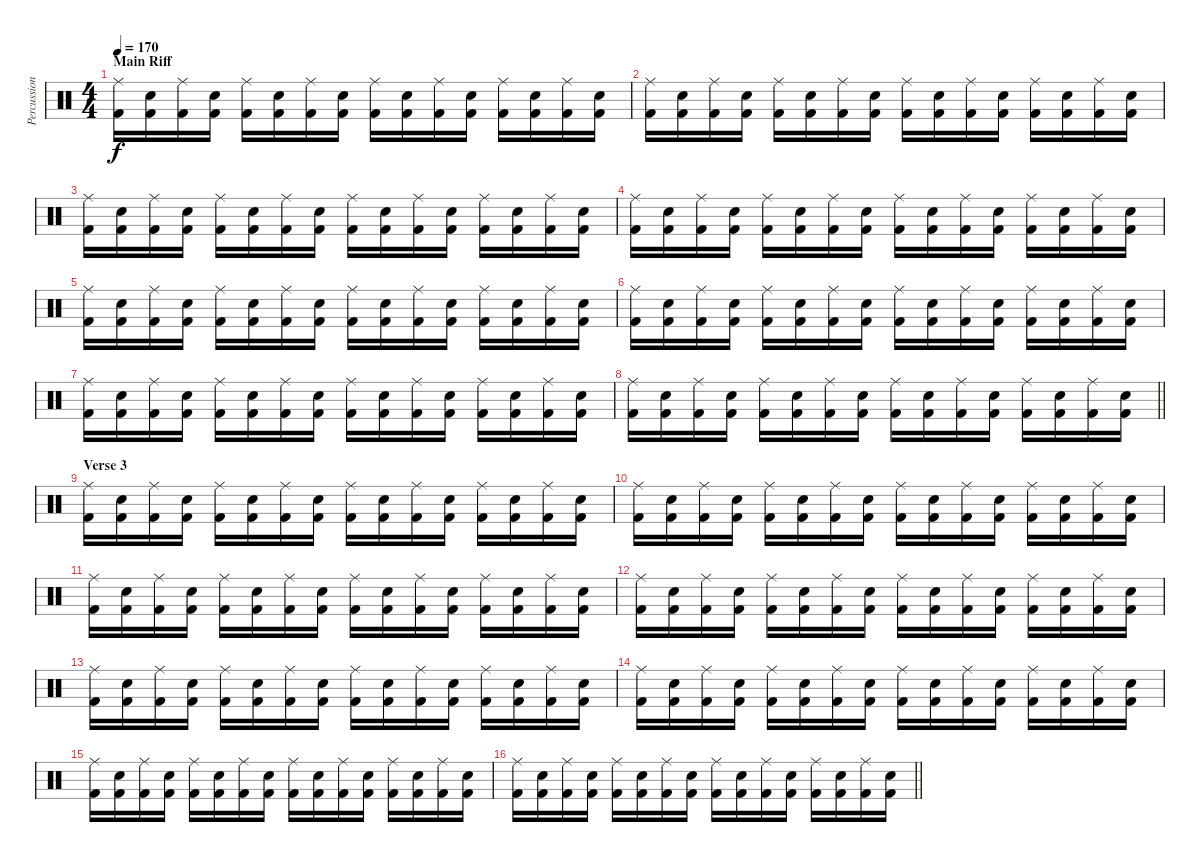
\track ("Percussion" "Percussion") {instrument percussion}
\staff {score}
\articulation defaults
\ts (4 4)
\section ("" "Main Riff")
\tempo 170
\clef neutral
\ks c
("Ride (middle)" "Kick (hit) 2").16{dy f} ("Electric Snare (hit)" "Kick (hit) 2").16 ("Ride (middle)" "Kick (hit) 2").16 ("Electric Snare (hit)" "Kick (hit) 2").16 ("Ride (middle)" "Kick (hit) 2").16 ("Electric Snare (hit)" "Kick (hit) 2").16 ("Ride (middle)" "Kick (hit) 2").16 ("Electric Snare (hit)" "Kick (hit) 2").16 ("Ride (middle)" "Kick (hit) 2").16 ("Electric Snare (hit)" "Kick (hit) 2").16 ("Ride (middle)" "Kick (hit) 2").16 ("Electric Snare (hit)" "Kick (hit) 2").16 ("Ride (middle)" "Kick (hit) 2").16 ("Electric Snare (hit)" "Kick (hit) 2").16 ("Ride (middle)" "Kick (hit) 2").16 ("Electric Snare (hit)" "Kick (hit) 2").16 |
("Ride (middle)" "Kick (hit) 2").16 ("Electric Snare (hit)" "Kick (hit) 2").16 ("Ride (middle)" "Kick (hit) 2").16 ("Electric Snare (hit)" "Kick (hit) 2").16 ("Ride (middle)" "Kick (hit) 2").16 ("Electric Snare (hit)" "Kick (hit) 2").16 ("Ride (middle)" "Kick (hit) 2").16 ("Electric Snare (hit)" "Kick (hit) 2").16 ("Ride (middle)" "Kick (hit) 2").16 ("Electric Snare (hit)" "Kick (hit) 2").16 ("Ride (middle)" "Kick (hit) 2").16 ("Electric Snare (hit)" "Kick (hit) 2").16 ("Ride (middle)" "Kick (hit) 2").16 ("Electric Snare (hit)" "Kick (hit) 2").16 ("Ride (middle)" "Kick (hit) 2").16 ("Electric Snare (hit)" "Kick (hit) 2").16 |
("Ride (middle)" "Kick (hit) 2").16 ("Electric Snare (hit)" "Kick (hit) 2").16 ("Ride (middle)" "Kick (hit) 2").16 ("Electric Snare (hit)" "Kick (hit) 2").16 ("Ride (middle)" "Kick (hit) 2").16 ("Electric Snare (hit)" "Kick (hit) 2").16 ("Ride (middle)" "Kick (hit) 2").16 ("Electric Snare (hit)" "Kick (hit) 2").16 ("Ride (middle)" "Kick (hit) 2").16 ("Electric Snare (hit)" "Kick (hit) 2").16 ("Ride (middle)" "Kick (hit) 2").16 ("Electric Snare (hit)" "Kick (hit) 2").16 ("Ride (middle)" "Kick (hit) 2").16 ("Electric Snare (hit)" "Kick (hit) 2").16 ("Ride (middle)" "Kick (hit) 2").16 ("Electric Snare (hit)" "Kick (hit) 2").16 |
("Ride (middle)" "Kick (hit) 2").16 ("Electric Snare (hit)" "Kick (hit) 2").16 ("Ride (middle)" "Kick (hit) 2").16 ("Electric Snare (hit)" "Kick (hit) 2").16 ("Ride (middle)" "Kick (hit) 2").16 ("Electric Snare (hit)" "Kick (hit) 2").16 ("Ride (middle)" "Kick (hit) 2").16 ("Electric Snare (hit)" "Kick (hit) 2").16 ("Ride (middle)" "Kick (hit) 2").16 ("Electric Snare (hit)" "Kick (hit) 2").16 ("Ride (middle)" "Kick (hit) 2").16 ("Electric Snare (hit)" "Kick (hit) 2").16 ("Ride (middle)" "Kick (hit) 2").16 ("Electric Snare (hit)" "Kick (hit) 2").16 ("Ride (middle)" "Kick (hit) 2").16 ("Electric Snare (hit)" "Kick (hit) 2").16 |
("Ride (middle)" "Kick (hit) 2").16 ("Electric Snare (hit)" "Kick (hit) 2").16 ("Ride (middle)" "Kick (hit) 2").16 ("Electric Snare (hit)" "Kick (hit) 2").16 ("Ride (middle)" "Kick (hit) 2").16 ("Electric Snare (hit)" "Kick (hit) 2").16 ("Ride (middle)" "Kick (hit) 2").16 ("Electric Snare (hit)" "Kick (hit) 2").16 ("Ride (middle)" "Kick (hit) 2").16 ("Electric Snare (hit)" "Kick (hit) 2").16 ("Ride (middle)" "Kick (hit) 2").16 ("Electric Snare (hit)" "Kick (hit) 2").16 ("Ride (middle)" "Kick (hit) 2").16 ("Electric Snare (hit)" "Kick (hit) 2").16 ("Ride (middle)" "Kick (hit) 2").16 ("Electric Snare (hit)" "Kick (hit) 2").16 |
("Ride (middle)" "Kick (hit) 2").16 ("Electric Snare (hit)" "Kick (hit) 2").16 ("Ride (middle)" "Kick (hit) 2").16 ("Electric Snare (hit)" "Kick (hit) 2").16 ("Ride (middle)" "Kick (hit) 2").16 ("Electric Snare (hit)" "Kick (hit) 2").16 ("Ride (middle)" "Kick (hit) 2").16 ("Electric Snare (hit)" "Kick (hit) 2").16 ("Ride (middle)" "Kick (hit) 2").16 ("Electric Snare (hit)" "Kick (hit) 2").16 ("Ride (middle)" "Kick (hit) 2").16 ("Electric Snare (hit)" "Kick (hit) 2").16 ("Ride (middle)" "Kick (hit) 2").16 ("Electric Snare (hit)" "Kick (hit) 2").16 ("Ride (middle)" "Kick (hit) 2").16 ("Electric Snare (hit)" "Kick (hit) 2").16 |
("Ride (middle)" "Kick (hit) 2").16 ("Electric Snare (hit)" "Kick (hit) 2").16 ("Ride (middle)" "Kick (hit) 2").16 ("Electric Snare (hit)" "Kick (hit) 2").16 ("Ride (middle)" "Kick (hit) 2").16 ("Electric Snare (hit)" "Kick (hit) 2").16 ("Ride (middle)" "Kick (hit) 2").16 ("Electric Snare (hit)" "Kick (hit) 2").16 ("Ride (middle)" "Kick (hit) 2").16 ("Electric Snare (hit)" "Kick (hit) 2").16 ("Ride (middle)" "Kick (hit) 2").16 ("Electric Snare (hit)" "Kick (hit) 2").16 ("Ride (middle)" "Kick (hit) 2").16 ("Electric Snare (hit)" "Kick (hit) 2").16 ("Ride (middle)" "Kick (hit) 2").16 ("Electric Snare (hit)" "Kick (hit) 2").16 |
\barLineRight lightlight
("Ride (middle)" "Kick (hit) 2").16 ("Electric Snare (hit)" "Kick (hit) 2").16 ("Ride (middle)" "Kick (hit) 2").16 ("Electric Snare (hit)" "Kick (hit) 2").16 ("Ride (middle)" "Kick (hit) 2").16 ("Electric Snare (hit)" "Kick (hit) 2").16 ("Ride (middle)" "Kick (hit) 2").16 ("Electric Snare (hit)" "Kick (hit) 2").16 ("Ride (middle)" "Kick (hit) 2").16 ("Electric Snare (hit)" "Kick (hit) 2").16 ("Ride (middle)" "Kick (hit) 2").16 ("Electric Snare (hit)" "Kick (hit) 2").16 ("Ride (middle)" "Kick (hit) 2").16 ("Electric Snare (hit)" "Kick (hit) 2").16 ("Ride (middle)" "Kick (hit) 2").16 ("Electric Snare (hit)" "Kick (hit) 2").16 |
\section ("" "Verse 3")
("Ride (middle)" "Kick (hit) 2").16 ("Electric Snare (hit)" "Kick (hit) 2").16 ("Ride (middle)" "Kick (hit) 2").16 ("Electric Snare (hit)" "Kick (hit) 2").16 ("Ride (middle)" "Kick (hit) 2").16 ("Electric Snare (hit)" "Kick (hit) 2").16 ("Ride (middle)" "Kick (hit) 2").16 ("Electric Snare (hit)" "Kick (hit) 2").16 ("Ride (middle)" "Kick (hit) 2").16 ("Electric Snare (hit)" "Kick (hit) 2").16 ("Ride (middle)" "Kick (hit) 2").16 ("Electric Snare (hit)" "Kick (hit) 2").16 ("Ride (middle)" "Kick (hit) 2").16 ("Electric Snare (hit)" "Kick (hit) 2").16 ("Ride (middle)" "Kick (hit) 2").16 ("Electric Snare (hit)" "Kick (hit) 2").16 |
("Ride (middle)" "Kick (hit) 2").16 ("Electric Snare (hit)" "Kick (hit) 2").16 ("Ride (middle)" "Kick (hit) 2").16 ("Electric Snare (hit)" "Kick (hit) 2").16 ("Ride (middle)" "Kick (hit) 2").16 ("Electric Snare (hit)" "Kick (hit) 2").16 ("Ride (middle)" "Kick (hit) 2").16 ("Electric Snare (hit)" "Kick (hit) 2").16 ("Ride (middle)" "Kick (hit) 2").16 ("Electric Snare (hit)" "Kick (hit) 2").16 ("Ride (middle)" "Kick (hit) 2").16 ("Electric Snare (hit)" "Kick (hit) 2").16 ("Ride (middle)" "Kick (hit) 2").16 ("Electric Snare (hit)" "Kick (hit) 2").16 ("Ride (middle)" "Kick (hit) 2").16 ("Electric Snare (hit)" "Kick (hit) 2").16 |
("Ride (middle)" "Kick (hit) 2").16 ("Electric Snare (hit)" "Kick (hit) 2").16 ("Ride (middle)" "Kick (hit) 2").16 ("Electric Snare (hit)" "Kick (hit) 2").16 ("Ride (middle)" "Kick (hit) 2").16 ("Electric Snare (hit)" "Kick (hit) 2").16 ("Ride (middle)" "Kick (hit) 2").16 ("Electric Snare (hit)" "Kick (hit) 2").16 ("Ride (middle)" "Kick (hit) 2").16 ("Electric Snare (hit)" "Kick (hit) 2").16 ("Ride (middle)" "Kick (hit) 2").16 ("Electric Snare (hit)" "Kick (hit) 2").16 ("Ride (middle)" "Kick (hit) 2").16 ("Electric Snare (hit)" "Kick (hit) 2").16 ("Ride (middle)" "Kick (hit) 2").16 ("Electric Snare (hit)" "Kick (hit) 2").16 |
("Ride (middle)" "Kick (hit) 2").16 ("Electric Snare (hit)" "Kick (hit) 2").16 ("Ride (middle)" "Kick (hit) 2").16 ("Electric Snare (hit)" "Kick (hit) 2").16 ("Ride (middle)" "Kick (hit) 2").16 ("Electric Snare (hit)" "Kick (hit) 2").16 ("Ride (middle)" "Kick (hit) 2").16 ("Electric Snare (hit)" "Kick (hit) 2").16 ("Ride (middle)" "Kick (hit) 2").16 ("Electric Snare (hit)" "Kick (hit) 2").16 ("Ride (middle)" "Kick (hit) 2").16 ("Electric Snare (hit)" "Kick (hit) 2").16 ("Ride (middle)" "Kick (hit) 2").16 ("Electric Snare (hit)" "Kick (hit) 2").16 ("Ride (middle)" "Kick (hit) 2").16 ("Electric Snare (hit)" "Kick (hit) 2").16 |
("Ride (middle)" "Kick (hit) 2").16 ("Electric Snare (hit)" "Kick (hit) 2").16 ("Ride (middle)" "Kick (hit) 2").16 ("Electric Snare (hit)" "Kick (hit) 2").16 ("Ride (middle)" "Kick (hit) 2").16 ("Electric Snare (hit)" "Kick (hit) 2").16 ("Ride (middle)" "Kick (hit) 2").16 ("Electric Snare (hit)" "Kick (hit) 2").16 ("Ride (middle)" "Kick (hit) 2").16 ("Electric Snare (hit)" "Kick (hit) 2").16 ("Ride (middle)" "Kick (hit) 2").16 ("Electric Snare (hit)" "Kick (hit) 2").16 ("Ride (middle)" "Kick (hit) 2").16 ("Electric Snare (hit)" "Kick (hit) 2").16 ("Ride (middle)" "Kick (hit) 2").16 ("Electric Snare (hit)" "Kick (hit) 2").16 |
("Ride (middle)" "Kick (hit) 2").16 ("Electric Snare (hit)" "Kick (hit) 2").16 ("Ride (middle)" "Kick (hit) 2").16 ("Electric Snare (hit)" "Kick (hit) 2").16 ("Ride (middle)" "Kick (hit) 2").16 ("Electric Snare (hit)" "Kick (hit) 2").16 ("Ride (middle)" "Kick (hit) 2").16 ("Electric Snare (hit)" "Kick (hit) 2").16 ("Ride (middle)" "Kick (hit) 2").16 ("Electric Snare (hit)" "Kick (hit) 2").16 ("Ride (middle)" "Kick (hit) 2").16 ("Electric Snare (hit)" "Kick (hit) 2").16 ("Ride (middle)" "Kick (hit) 2").16 ("Electric Snare (hit)" "Kick (hit) 2").16 ("Ride (middle)" "Kick (hit) 2").16 ("Electric Snare (hit)" "Kick (hit) 2").16 |
("Ride (middle)" "Kick (hit) 2").16 ("Electric Snare (hit)" "Kick (hit) 2").16 ("Ride (middle)" "Kick (hit) 2").16 ("Electric Snare (hit)" "Kick (hit) 2").16 ("Ride (middle)" "Kick (hit) 2").16 ("Electric Snare (hit)" "Kick (hit) 2").16 ("Ride (middle)" "Kick (hit) 2").16 ("Electric Snare (hit)" "Kick (hit) 2").16 ("Ride (middle)" "Kick (hit) 2").16 ("Electric Snare (hit)" "Kick (hit) 2").16 ("Ride (middle)" "Kick (hit) 2").16 ("Electric Snare (hit)" "Kick (hit) 2").16 ("Ride (middle)" "Kick (hit) 2").16 ("Electric Snare (hit)" "Kick (hit) 2").16 ("Ride (middle)" "Kick (hit) 2").16 ("Electric Snare (hit)" "Kick (hit) 2").16 |
\barLineRight lightlight
("Ride (middle)" "Kick (hit) 2").16 ("Electric Snare (hit)" "Kick (hit) 2").16 ("Ride (middle)" "Kick (hit) 2").16 ("Electric Snare (hit)" "Kick (hit) 2").16 ("Ride (middle)" "Kick (hit) 2").16 ("Electric Snare (hit)" "Kick (hit) 2").16 ("Ride (middle)" "Kick (hit) 2").16 ("Electric Snare (hit)" "Kick (hit) 2").16 ("Ride (middle)" "Kick (hit) 2").16 ("Electric Snare (hit)" "Kick (hit) 2").16 ("Ride (middle)" "Kick (hit) 2").16 ("Electric Snare (hit)" "Kick (hit) 2").16 ("Ride (middle)" "Kick (hit) 2").16 ("Electric Snare (hit)" "Kick (hit) 2").16 ("Ride (middle)" "Kick (hit) 2").16 ("Electric Snare (hit)" "Kick (hit) 2").16
